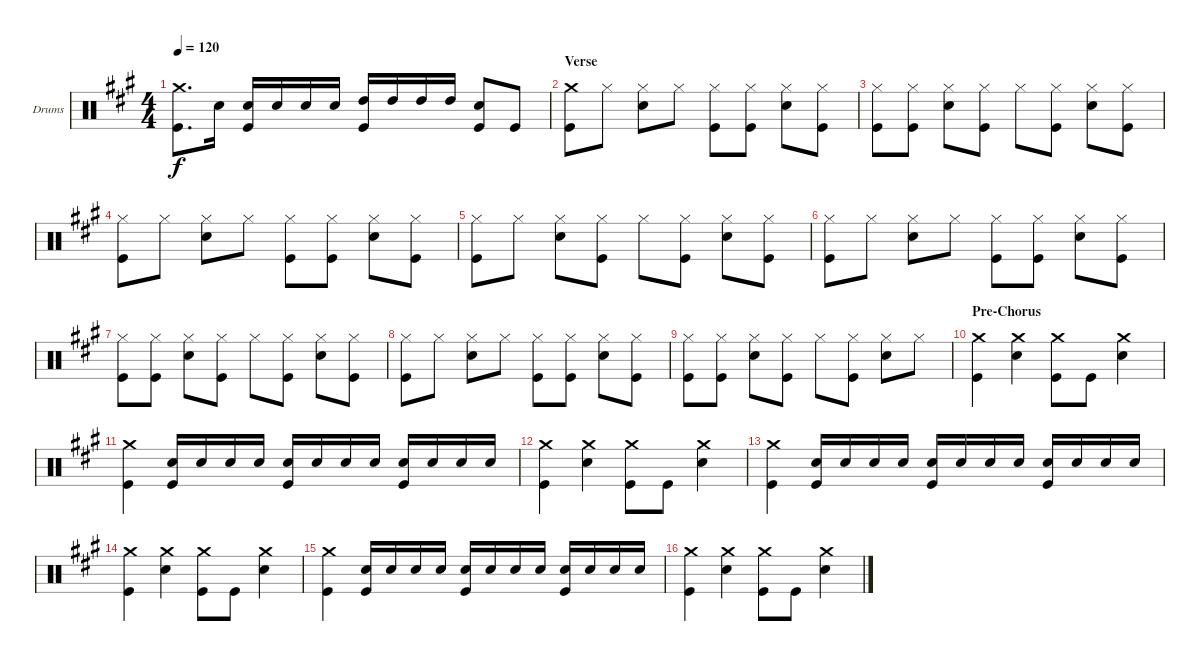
\defaultSystemsLayout 4
\bracketExtendMode groupsimilarinstruments
\firstSystemTrackNameOrientation horizontal
\otherSystemsTrackNameOrientation horizontal
\track ("Drum" "Drums") {instrument percussion}
\staff {score}
\articulation defaults
\ts (4 4)
\tempo 120
\clef neutral
\scale
1.05801
\ks a
("Crash medium (hit)" "Kick (hit)").8{d dy f} "Snare (hit) 2".16 ("Kick (hit)" "Snare (hit) 2").16 "Snare (hit) 2".16 "Snare (hit) 2".16 "Snare (hit) 2".16 ("Kick (hit)" "High Tom (hit)").16 "High Tom (hit)".16 "High Tom (hit)".16 "High Tom (hit)".16 ("Snare (hit) 2" "Kick (hit)").8 "Kick (hit)".8 |
\section ("" "Verse")
\scale
0.941992 ("Crash medium (hit)" "Kick (hit)").8 "Hi-Hat (closed)".8 ("Hi-Hat (closed)" "Snare (hit) 2").8 "Hi-Hat (closed)".8 ("Hi-Hat (closed)" "Kick (hit)").8 ("Hi-Hat (closed)" "Kick (hit)").8 ("Hi-Hat (closed)" "Snare (hit) 2").8 ("Hi-Hat (closed)" "Kick (hit)").8 |
\scale
1.05801 ("Hi-Hat (closed)" "Kick (hit)").8 ("Hi-Hat (closed)" "Kick (hit)").8 ("Hi-Hat (closed)" "Snare (hit) 2").8 ("Hi-Hat (closed)" "Kick (hit)").8 "Hi-Hat (closed)".8 ("Hi-Hat (closed)" "Kick (hit)").8 ("Hi-Hat (closed)" "Snare (hit) 2").8 ("Hi-Hat (closed)" "Kick (hit)").8 |
\scale
0.941992 ("Hi-Hat (closed)" "Kick (hit)").8 "Hi-Hat (closed)".8 ("Hi-Hat (closed)" "Snare (hit) 2").8 "Hi-Hat (closed)".8 ("Hi-Hat (closed)" "Kick (hit)").8 ("Hi-Hat (closed)" "Kick (hit)").8 ("Hi-Hat (closed)" "Snare (hit) 2").8 ("Hi-Hat (closed)" "Kick (hit)").8 |
\scale
1.05801 ("Hi-Hat (closed)" "Kick (hit)").8 "Hi-Hat (closed)".8 ("Hi-Hat (closed)" "Snare (hit) 2").8 ("Hi-Hat (closed)" "Kick (hit)").8 "Hi-Hat (closed)".8 ("Hi-Hat (closed)" "Kick (hit)").8 ("Hi-Hat (closed)" "Snare (hit) 2").8 ("Hi-Hat (closed)" "Kick (hit)").8 |
\scale
0.941992 ("Hi-Hat (closed)" "Kick (hit)").8 "Hi-Hat (closed)".8 ("Hi-Hat (closed)" "Snare (hit) 2").8 "Hi-Hat (closed)".8 ("Hi-Hat (closed)" "Kick (hit)").8 ("Hi-Hat (closed)" "Kick (hit)").8 ("Hi-Hat (closed)" "Snare (hit) 2").8 ("Hi-Hat (closed)" "Kick (hit)").8 |
\scale
1.05801 ("Hi-Hat (closed)" "Kick (hit)").8 ("Hi-Hat (closed)" "Kick (hit)").8 ("Hi-Hat (closed)" "Snare (hit) 2").8 ("Hi-Hat (closed)" "Kick (hit)").8 "Hi-Hat (closed)".8 ("Hi-Hat (closed)" "Kick (hit)").8 ("Hi-Hat (closed)" "Snare (hit) 2").8 ("Hi-Hat (closed)" "Kick (hit)").8 |
\scale
0.941992 ("Hi-Hat (closed)" "Kick (hit)").8 "Hi-Hat (closed)".8 ("Hi-Hat (closed)" "Snare (hit) 2").8 "Hi-Hat (closed)".8 ("Hi-Hat (closed)" "Kick (hit)").8 ("Hi-Hat (closed)" "Kick (hit)").8 ("Hi-Hat (closed)" "Snare (hit) 2").8 ("Hi-Hat (closed)" "Kick (hit)").8 |
\scale
1.05801 ("Hi-Hat (closed)" "Kick (hit)").8 ("Hi-Hat (closed)" "Kick (hit)").8 ("Hi-Hat (closed)" "Snare (hit) 2").8 ("Hi-Hat (closed)" "Kick (hit)").8 "Hi-Hat (closed)".8 ("Hi-Hat (closed)" "Kick (hit)").8 ("Hi-Hat (closed)" "Snare (hit) 2").8 "Hi-Hat (closed)".8 |
\section ("" "Pre-Chorus")
\scale
0.941992 ("Crash medium (hit)" "Kick (hit)").4 ("Crash medium (hit)" "Snare (hit) 2").4 ("Crash medium (hit)" "Kick (hit)").8 "Kick (hit)".8 ("Crash medium (hit)" "Snare (hit) 2").4 |
\scale
1.05801 ("Crash medium (hit)" "Kick (hit)").4 ("Kick (hit)" "Snare (hit) 2").16 "Snare (hit) 2".16 "Snare (hit) 2".16 "Snare (hit) 2".16 ("Kick (hit)" "Snare (hit) 2").16 "Snare (hit) 2".16 "Snare (hit) 2".16 "Snare (hit) 2".16 ("Kick (hit)" "Snare (hit) 2").16 "Snare (hit) 2".16 "Snare (hit) 2".16 "Snare (hit) 2".16 |
\scale
0.941992 ("Crash medium (hit)" "Kick (hit)").4 ("Crash medium (hit)" "Snare (hit) 2").4 ("Crash medium (hit)" "Kick (hit)").8 "Kick (hit)".8 ("Crash medium (hit)" "Snare (hit) 2").4 |
\scale
1.05801 ("Crash medium (hit)" "Kick (hit)").4 ("Kick (hit)" "Snare (hit) 2").16 "Snare (hit) 2".16 "Snare (hit) 2".16 "Snare (hit) 2".16 ("Kick (hit)" "Snare (hit) 2").16 "Snare (hit) 2".16 "Snare (hit) 2".16 "Snare (hit) 2".16 ("Kick (hit)" "Snare (hit) 2").16 "Snare (hit) 2".16 "Snare (hit) 2".16 "Snare (hit) 2".16 |
\scale
0.941992 ("Crash medium (hit)" "Kick (hit)").4 ("Crash medium (hit)" "Snare (hit) 2").4 ("Crash medium (hit)" "Kick (hit)").8 "Kick (hit)".8 ("Crash medium (hit)" "Snare (hit) 2").4 |
\scale
1.05801 ("Crash medium (hit)" "Kick (hit)").4 ("Kick (hit)" "Snare (hit) 2").16 "Snare (hit) 2".16 "Snare (hit) 2".16 "Snare (hit) 2".16 ("Kick (hit)" "Snare (hit) 2").16 "Snare (hit) 2".16 "Snare (hit) 2".16 "Snare (hit) 2".16 ("Kick (hit)" "Snare (hit) 2").16 "Snare (hit) 2".16 "Snare (hit) 2".16 "Snare (hit) 2".16 |
\scale
0.941992 ("Crash medium (hit)" "Kick (hit)").4 ("Crash medium (hit)" "Snare (hit) 2").4 ("Crash medium (hit)" "Kick (hit)").8 "Kick (hit)".8 ("Crash medium (hit)" "Snare (hit) 2").4
